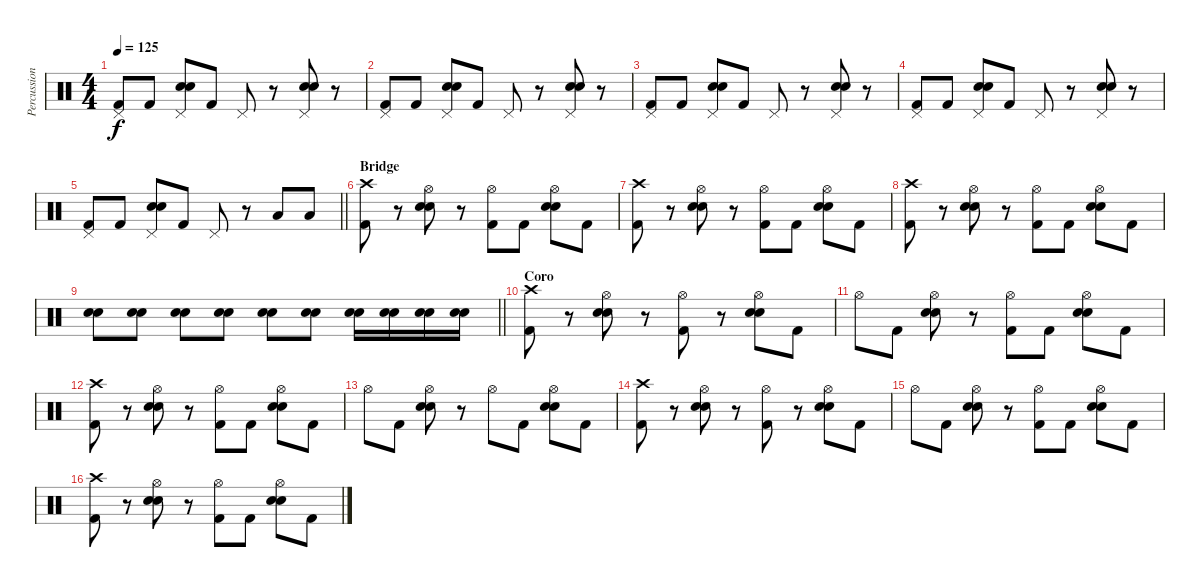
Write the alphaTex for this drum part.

\track ("Percussion" "Percussion") {instrument percussion}
\staff {score}
\articulation defaults
\ts (4 4)
\tempo 125
\clef neutral
\ks c
("Pedal Hi-Hat (hit)" "Kick (hit) 2").8{dy f} "Kick (hit) 2".8 ("Pedal Hi-Hat (hit)" "Snare (hit) 2" "Electric Snare (hit)").8 "Kick (hit) 2".8 "Pedal Hi-Hat (hit)".8 r.8 ("Pedal Hi-Hat (hit)" "Snare (hit) 2" "Electric Snare (hit)").8 r.8 |
("Pedal Hi-Hat (hit)" "Kick (hit) 2").8 "Kick (hit) 2".8 ("Pedal Hi-Hat (hit)" "Snare (hit) 2" "Electric Snare (hit)").8 "Kick (hit) 2".8 "Pedal Hi-Hat (hit)".8 r.8 ("Pedal Hi-Hat (hit)" "Snare (hit) 2" "Electric Snare (hit)").8 r.8 |
("Pedal Hi-Hat (hit)" "Kick (hit) 2").8 "Kick (hit) 2".8 ("Pedal Hi-Hat (hit)" "Snare (hit) 2" "Electric Snare (hit)").8 "Kick (hit) 2".8 "Pedal Hi-Hat (hit)".8 r.8 ("Pedal Hi-Hat (hit)" "Snare (hit) 2" "Electric Snare (hit)").8 r.8 |
("Pedal Hi-Hat (hit)" "Kick (hit) 2").8 "Kick (hit) 2".8 ("Pedal Hi-Hat (hit)" "Snare (hit) 2" "Electric Snare (hit)").8 "Kick (hit) 2".8 "Pedal Hi-Hat (hit)".8 r.8 ("Pedal Hi-Hat (hit)" "Snare (hit) 2" "Electric Snare (hit)").8 r.8 |
\barLineRight lightlight
("Pedal Hi-Hat (hit)" "Kick (hit) 2").8 "Kick (hit) 2".8 ("Pedal Hi-Hat (hit)" "Snare (hit) 2" "Electric Snare (hit)").8 "Kick (hit) 2".8 "Pedal Hi-Hat (hit)".8 r.8 "Low Tom (hit)".8 "Low Tom (hit)".8 |
\section ("" "Bridge")
("Crash high (hit)" "Kick (hit) 2").8 r.8 ("Hi-Hat (open)" "Snare (hit) 2" "Electric Snare (hit)").8 r.8 ("Hi-Hat (open)" "Kick (hit) 2").8 "Kick (hit) 2".8 ("Hi-Hat (open)" "Snare (hit) 2" "Electric Snare (hit)").8 "Kick (hit) 2".8 |
("Crash high (hit)" "Kick (hit) 2").8 r.8 ("Hi-Hat (open)" "Snare (hit) 2" "Electric Snare (hit)").8 r.8 ("Hi-Hat (open)" "Kick (hit) 2").8 "Kick (hit) 2".8 ("Hi-Hat (open)" "Snare (hit) 2" "Electric Snare (hit)").8 "Kick (hit) 2".8 |
("Crash high (hit)" "Kick (hit) 2").8 r.8 ("Hi-Hat (open)" "Snare (hit) 2" "Electric Snare (hit)").8 r.8 ("Hi-Hat (open)" "Kick (hit) 2").8 "Kick (hit) 2".8 ("Hi-Hat (open)" "Snare (hit) 2" "Electric Snare (hit)").8 "Kick (hit) 2".8 |
\barLineRight lightlight
("Snare (hit) 2" "Electric Snare (hit)").8 ("Snare (hit) 2" "Electric Snare (hit)").8 ("Snare (hit) 2" "Electric Snare (hit)").8 ("Snare (hit) 2" "Electric Snare (hit)").8 ("Snare (hit) 2" "Electric Snare (hit)").8 ("Snare (hit) 2" "Electric Snare (hit)").8 ("Snare (hit) 2" "Electric Snare (hit)").16 ("Snare (hit) 2" "Electric Snare (hit)").16 ("Snare (hit) 2" "Electric Snare (hit)").16 ("Snare (hit) 2" "Electric Snare (hit)").16 |
\section ("" "Coro")
("Crash high (hit)" "Kick (hit) 2").8 r.8 ("Hi-Hat (open)" "Snare (hit) 2" "Electric Snare (hit)").8 r.8 ("Hi-Hat (open)" "Kick (hit) 2").8 r.8 ("Hi-Hat (open)" "Snare (hit) 2" "Electric Snare (hit)").8 "Kick (hit) 2".8 |
"Hi-Hat (open)".8 "Kick (hit) 2".8 ("Hi-Hat (open)" "Snare (hit) 2" "Electric Snare (hit)").8 r.8 ("Hi-Hat (open)" "Kick (hit) 2").8 "Kick (hit) 2".8 ("Hi-Hat (open)" "Snare (hit) 2" "Electric Snare (hit)").8 "Kick (hit) 2".8 |
("Crash high (hit)" "Kick (hit) 2").8 r.8 ("Hi-Hat (open)" "Snare (hit) 2" "Electric Snare (hit)").8 r.8 ("Hi-Hat (open)" "Kick (hit) 2").8 "Kick (hit) 2".8 ("Hi-Hat (open)" "Snare (hit) 2" "Electric Snare (hit)").8 "Kick (hit) 2".8 |
"Hi-Hat (open)".8 "Kick (hit) 2".8 ("Hi-Hat (open)" "Snare (hit) 2" "Electric Snare (hit)").8 r.8 "Hi-Hat (open)".8 "Kick (hit) 2".8 ("Hi-Hat (open)" "Snare (hit) 2" "Electric Snare (hit)").8 "Kick (hit) 2".8 |
("Crash high (hit)" "Kick (hit) 2").8 r.8 ("Hi-Hat (open)" "Snare (hit) 2" "Electric Snare (hit)").8 r.8 ("Hi-Hat (open)" "Kick (hit) 2").8 r.8 ("Hi-Hat (open)" "Snare (hit) 2" "Electric Snare (hit)").8 "Kick (hit) 2".8 |
"Hi-Hat (open)".8 "Kick (hit) 2".8 ("Hi-Hat (open)" "Snare (hit) 2" "Electric Snare (hit)").8 r.8 ("Hi-Hat (open)" "Kick (hit) 2").8 "Kick (hit) 2".8 ("Hi-Hat (open)" "Snare (hit) 2" "Electric Snare (hit)").8 "Kick (hit) 2".8 |
("Crash high (hit)" "Kick (hit) 2").8 r.8 ("Hi-Hat (open)" "Snare (hit) 2" "Electric Snare (hit)").8 r.8 ("Hi-Hat (open)" "Kick (hit) 2").8 "Kick (hit) 2".8 ("Hi-Hat (open)" "Snare (hit) 2" "Electric Snare (hit)").8 "Kick (hit) 2".8
